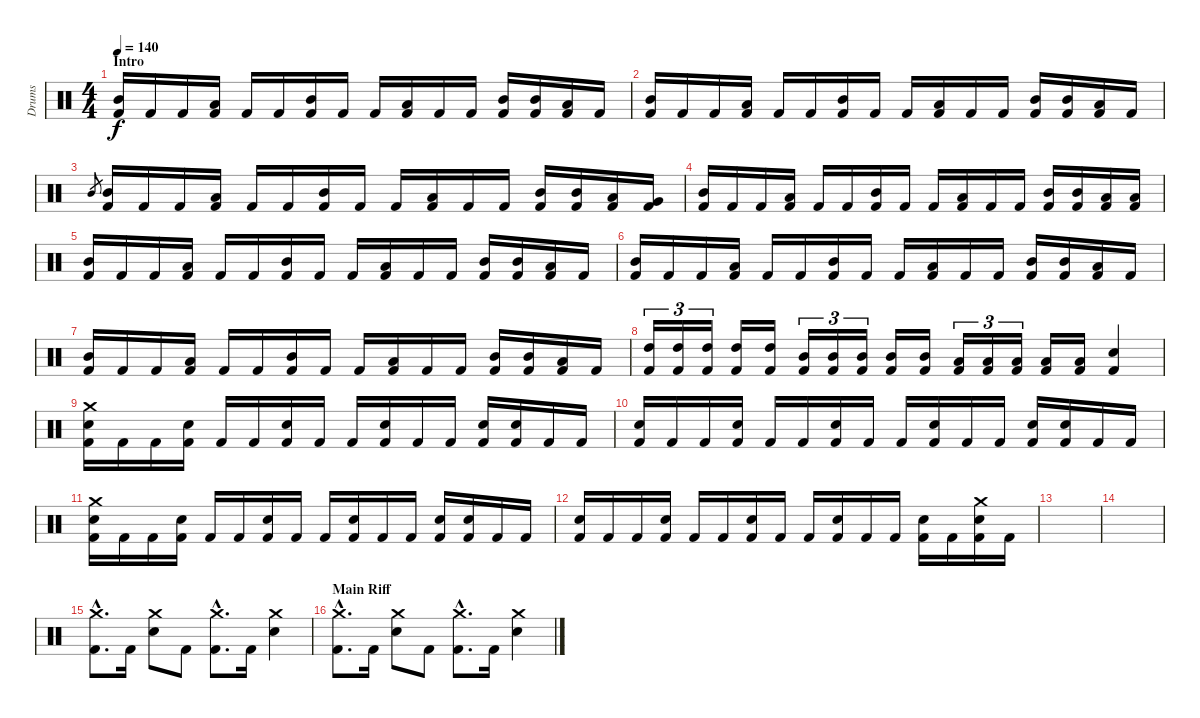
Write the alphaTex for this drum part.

\track ("Drums" "Drums") {instrument percussion}
\staff {score}
\articulation defaults
\ts (4 4)
\section ("" "Intro")
\tempo 140
\clef neutral
\ks c
("Mid Tom (hit)" "Kick (hit) 2").16{dy f} "Kick (hit) 2".16 "Kick (hit) 2".16 ("Low Tom (hit)" "Kick (hit) 2").16 "Kick (hit) 2".16 "Kick (hit) 2".16 ("Mid Tom (hit)" "Kick (hit) 2").16 "Kick (hit) 2".16 "Kick (hit) 2".16 ("Low Tom (hit)" "Kick (hit) 2").16 "Kick (hit) 2".16 "Kick (hit) 2".16 ("Mid Tom (hit)" "Kick (hit) 2").16 ("Mid Tom (hit)" "Kick (hit) 2").16 ("Low Tom (hit)" "Kick (hit) 2").16 "Kick (hit) 2".16 |
("Mid Tom (hit)" "Kick (hit) 2").16 "Kick (hit) 2".16 "Kick (hit) 2".16 ("Low Tom (hit)" "Kick (hit) 2").16 "Kick (hit) 2".16 "Kick (hit) 2".16 ("Mid Tom (hit)" "Kick (hit) 2").16 "Kick (hit) 2".16 "Kick (hit) 2".16 ("Low Tom (hit)" "Kick (hit) 2").16 "Kick (hit) 2".16 "Kick (hit) 2".16 ("Mid Tom (hit)" "Kick (hit) 2").16 ("Mid Tom (hit)" "Kick (hit) 2").16 ("Low Tom (hit)" "Kick (hit) 2").16 "Kick (hit) 2".16 |
"Mid Tom (hit)".8{gr} ("Mid Tom (hit)" "Kick (hit) 2").16 "Kick (hit) 2".16 "Kick (hit) 2".16 ("Low Tom (hit)" "Kick (hit) 2").16 "Kick (hit) 2".16 "Kick (hit) 2".16 ("Mid Tom (hit)" "Kick (hit) 2").16 "Kick (hit) 2".16 "Kick (hit) 2".16 ("Low Tom (hit)" "Kick (hit) 2").16 "Kick (hit) 2".16 "Kick (hit) 2".16 ("Mid Tom (hit)" "Kick (hit) 2").16 ("Mid Tom (hit)" "Kick (hit) 2").16 ("Low Tom (hit)" "Kick (hit) 2").16 ("Very Low Tom (hit)" "Kick (hit) 2").16 |
("Mid Tom (hit)" "Kick (hit) 2").16 "Kick (hit) 2".16 "Kick (hit) 2".16 ("Low Tom (hit)" "Kick (hit) 2").16 "Kick (hit) 2".16 "Kick (hit) 2".16 ("Mid Tom (hit)" "Kick (hit) 2").16 "Kick (hit) 2".16 "Kick (hit) 2".16 ("Low Tom (hit)" "Kick (hit) 2").16 "Kick (hit) 2".16 "Kick (hit) 2".16 ("Mid Tom (hit)" "Kick (hit) 2").16 ("Mid Tom (hit)" "Kick (hit) 2").16 ("Low Tom (hit)" "Kick (hit) 2").16 ("Low Tom (hit)" "Kick (hit) 2").16 |
("Mid Tom (hit)" "Kick (hit) 2").16 "Kick (hit) 2".16 "Kick (hit) 2".16 ("Low Tom (hit)" "Kick (hit) 2").16 "Kick (hit) 2".16 "Kick (hit) 2".16 ("Mid Tom (hit)" "Kick (hit) 2").16 "Kick (hit) 2".16 "Kick (hit) 2".16 ("Low Tom (hit)" "Kick (hit) 2").16 "Kick (hit) 2".16 "Kick (hit) 2".16 ("Mid Tom (hit)" "Kick (hit) 2").16 ("Mid Tom (hit)" "Kick (hit) 2").16 ("Low Tom (hit)" "Kick (hit) 2").16 "Kick (hit) 2".16 |
("Mid Tom (hit)" "Kick (hit) 2").16 "Kick (hit) 2".16 "Kick (hit) 2".16 ("Low Tom (hit)" "Kick (hit) 2").16 "Kick (hit) 2".16 "Kick (hit) 2".16 ("Mid Tom (hit)" "Kick (hit) 2").16 "Kick (hit) 2".16 "Kick (hit) 2".16 ("Low Tom (hit)" "Kick (hit) 2").16 "Kick (hit) 2".16 "Kick (hit) 2".16 ("Mid Tom (hit)" "Kick (hit) 2").16 ("Mid Tom (hit)" "Kick (hit) 2").16 ("Low Tom (hit)" "Kick (hit) 2").16 "Kick (hit) 2".16 |
("Mid Tom (hit)" "Kick (hit) 2").16 "Kick (hit) 2".16 "Kick (hit) 2".16 ("Low Tom (hit)" "Kick (hit) 2").16 "Kick (hit) 2".16 "Kick (hit) 2".16 ("Mid Tom (hit)" "Kick (hit) 2").16 "Kick (hit) 2".16 "Kick (hit) 2".16 ("Low Tom (hit)" "Kick (hit) 2").16 "Kick (hit) 2".16 "Kick (hit) 2".16 ("Mid Tom (hit)" "Kick (hit) 2").16 ("Mid Tom (hit)" "Kick (hit) 2").16 ("Low Tom (hit)" "Kick (hit) 2").16 "Kick (hit) 2".16 |
("High Tom (hit)" "Kick (hit) 2").16{tu (3 2)} ("High Tom (hit)" "Kick (hit) 2").16{tu (3 2)} ("High Tom (hit)" "Kick (hit) 2").16{tu (3 2)} ("High Tom (hit)" "Kick (hit) 2").16 ("High Tom (hit)" "Kick (hit) 2").16 ("Mid Tom (hit)" "Kick (hit) 2").16{tu (3 2)} ("Mid Tom (hit)" "Kick (hit) 2").16{tu (3 2)} ("Mid Tom (hit)" "Kick (hit) 2").16{tu (3 2)} ("Mid Tom (hit)" "Kick (hit) 2").16 ("Mid Tom (hit)" "Kick (hit) 2").16 ("Low Tom (hit)" "Kick (hit) 2").16{tu (3 2)} ("Low Tom (hit)" "Kick (hit) 2").16{tu (3 2)} ("Low Tom (hit)" "Kick (hit) 2").16{tu (3 2)} ("Low Tom (hit)" "Kick (hit) 2").16 ("Low Tom (hit)" "Kick (hit) 2").16 ("Electric Snare (hit)" "Kick (hit) 2").4 |
("Crash medium (hit)" "Electric Snare (hit)" "Kick (hit) 2").16 "Kick (hit) 2".16 "Kick (hit) 2".16 ("Electric Snare (hit)" "Kick (hit) 2").16 "Kick (hit) 2".16 "Kick (hit) 2".16 ("Electric Snare (hit)" "Kick (hit) 2").16 "Kick (hit) 2".16 "Kick (hit) 2".16 ("Electric Snare (hit)" "Kick (hit) 2").16 "Kick (hit) 2".16 "Kick (hit) 2".16 ("Electric Snare (hit)" "Kick (hit) 2").16 ("Electric Snare (hit)" "Kick (hit) 2").16 "Kick (hit) 2".16 "Kick (hit) 2".16 |
("Electric Snare (hit)" "Kick (hit) 2").16 "Kick (hit) 2".16 "Kick (hit) 2".16 ("Electric Snare (hit)" "Kick (hit) 2").16 "Kick (hit) 2".16 "Kick (hit) 2".16 ("Electric Snare (hit)" "Kick (hit) 2").16 "Kick (hit) 2".16 "Kick (hit) 2".16 ("Electric Snare (hit)" "Kick (hit) 2").16 "Kick (hit) 2".16 "Kick (hit) 2".16 ("Electric Snare (hit)" "Kick (hit) 2").16 ("Electric Snare (hit)" "Kick (hit) 2").16 "Kick (hit) 2".16 "Kick (hit) 2".16 |
("Crash medium (hit)" "Electric Snare (hit)" "Kick (hit) 2").16 "Kick (hit) 2".16 "Kick (hit) 2".16 ("Electric Snare (hit)" "Kick (hit) 2").16 "Kick (hit) 2".16 "Kick (hit) 2".16 ("Electric Snare (hit)" "Kick (hit) 2").16 "Kick (hit) 2".16 "Kick (hit) 2".16 ("Electric Snare (hit)" "Kick (hit) 2").16 "Kick (hit) 2".16 "Kick (hit) 2".16 ("Electric Snare (hit)" "Kick (hit) 2").16 ("Electric Snare (hit)" "Kick (hit) 2").16 "Kick (hit) 2".16 "Kick (hit) 2".16 |
("Electric Snare (hit)" "Kick (hit) 2").16 "Kick (hit) 2".16 "Kick (hit) 2".16 ("Electric Snare (hit)" "Kick (hit) 2").16 "Kick (hit) 2".16 "Kick (hit) 2".16 ("Electric Snare (hit)" "Kick (hit) 2").16 "Kick (hit) 2".16 "Kick (hit) 2".16 ("Electric Snare (hit)" "Kick (hit) 2").16 "Kick (hit) 2".16 "Kick (hit) 2".16 ("Electric Snare (hit)" "Kick (hit) 2").16 "Kick (hit) 2".16 ("Crash medium (hit)" "Electric Snare (hit)" "Kick (hit) 2").16 "Kick (hit) 2".16 |
|
|
("Crash medium (hit)"{hac} "Kick (hit) 2"{hac}).8{d} "Kick (hit) 2".16 ("Crash medium (hit)" "Electric Snare (hit)").8 "Kick (hit) 2".8 ("Crash medium (hit)"{hac} "Kick (hit) 2"{hac}).8{d} "Kick (hit) 2".16 ("Crash medium (hit)" "Electric Snare (hit)").4 |
\section ("" "Main Riff")
("Crash medium (hit)"{hac} "Kick (hit) 2"{hac}).8{d} "Kick (hit) 2".16 ("Crash medium (hit)" "Electric Snare (hit)").8 "Kick (hit) 2".8 ("Crash medium (hit)"{hac} "Kick (hit) 2"{hac}).8{d} "Kick (hit) 2".16 ("Crash medium (hit)" "Electric Snare (hit)").4
